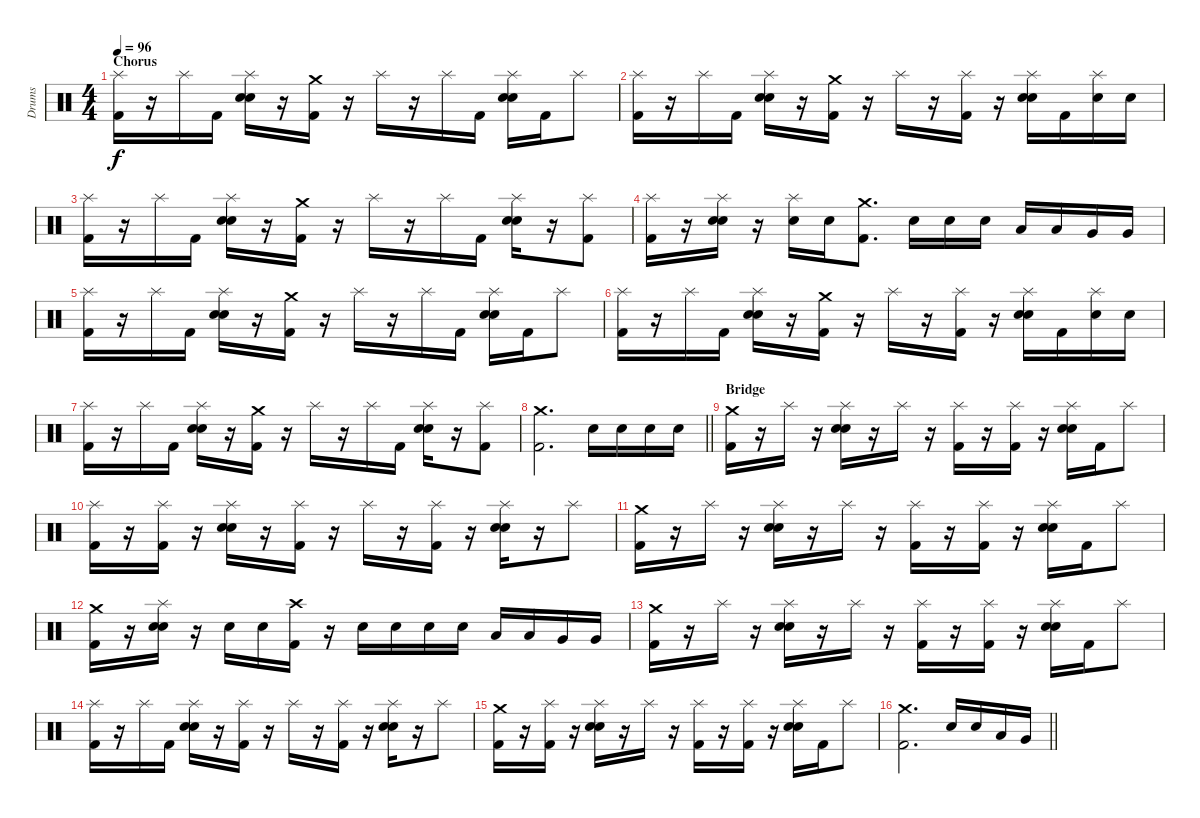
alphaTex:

\track ("Drums" "Drums") {instrument percussion}
\staff {score}
\articulation defaults
\ts (4 4)
\section ("" "Chorus")
\tempo 96
\clef neutral
\ks c
("Splash (hit)" "Kick (hit) 2").16{dy f} r.16 "Splash (hit)".16 "Kick (hit) 2".16 ("Splash (hit)" "Electric Snare (hit)" "Snare (hit) 2").16 r.16 ("Crash medium (hit)" "Kick (hit) 2").16 r.16 "Splash (hit)".16 r.16 "Splash (hit)".16 "Kick (hit) 2".16 ("Splash (hit)" "Electric Snare (hit)" "Snare (hit) 2").16 "Kick (hit) 2".16 "Splash (hit)".8 |
("Splash (hit)" "Kick (hit) 2").16 r.16 "Splash (hit)".16 "Kick (hit) 2".16 ("Splash (hit)" "Electric Snare (hit)" "Snare (hit) 2").16 r.16 ("Crash medium (hit)" "Kick (hit) 2").16 r.16 "Splash (hit)".16 r.16 ("Splash (hit)" "Kick (hit) 2").16 r.16 ("Splash (hit)" "Electric Snare (hit)" "Snare (hit) 2").16 "Kick (hit) 2".16 ("Splash (hit)" "Electric Snare (hit)").16 "Electric Snare (hit)".16 |
("Splash (hit)" "Kick (hit) 2").16 r.16 "Splash (hit)".16 "Kick (hit) 2".16 ("Splash (hit)" "Electric Snare (hit)" "Snare (hit) 2").16 r.16 ("Crash medium (hit)" "Kick (hit) 2").16 r.16 "Splash (hit)".16 r.16 "Splash (hit)".16 "Kick (hit) 2".16 ("Splash (hit)" "Electric Snare (hit)" "Snare (hit) 2").16 r.16 ("Splash (hit)" "Kick (hit) 2").8 |
("Splash (hit)" "Kick (hit) 2").16 r.16 ("Splash (hit)" "Electric Snare (hit)" "Snare (hit) 2").16 r.16 ("Splash (hit)" "Electric Snare (hit)").16 "Electric Snare (hit)".16 ("Crash medium (hit)" "Kick (hit) 2").8{d} "Electric Snare (hit)".16 "Electric Snare (hit)".16 "Electric Snare (hit)".16 "Low Tom (hit)".16 "Low Tom (hit)".16 "Very Low Tom (hit)".16 "Very Low Tom (hit)".16 |
("Splash (hit)" "Kick (hit) 2").16 r.16 "Splash (hit)".16 "Kick (hit) 2".16 ("Splash (hit)" "Electric Snare (hit)" "Snare (hit) 2").16 r.16 ("Crash medium (hit)" "Kick (hit) 2").16 r.16 "Splash (hit)".16 r.16 "Splash (hit)".16 "Kick (hit) 2".16 ("Splash (hit)" "Electric Snare (hit)" "Snare (hit) 2").16 "Kick (hit) 2".16 "Splash (hit)".8 |
("Splash (hit)" "Kick (hit) 2").16 r.16 "Splash (hit)".16 "Kick (hit) 2".16 ("Splash (hit)" "Electric Snare (hit)" "Snare (hit) 2").16 r.16 ("Crash medium (hit)" "Kick (hit) 2").16 r.16 "Splash (hit)".16 r.16 ("Splash (hit)" "Kick (hit) 2").16 r.16 ("Splash (hit)" "Electric Snare (hit)" "Snare (hit) 2").16 "Kick (hit) 2".16 ("Splash (hit)" "Electric Snare (hit)").16 "Electric Snare (hit)".16 |
("Splash (hit)" "Kick (hit) 2").16 r.16 "Splash (hit)".16 "Kick (hit) 2".16 ("Splash (hit)" "Electric Snare (hit)" "Snare (hit) 2").16 r.16 ("Crash medium (hit)" "Kick (hit) 2").16 r.16 "Splash (hit)".16 r.16 "Splash (hit)".16 "Kick (hit) 2".16 ("Splash (hit)" "Electric Snare (hit)" "Snare (hit) 2").16 r.16 ("Splash (hit)" "Kick (hit) 2").8 |
\barLineRight lightlight
("Crash medium (hit)" "Kick (hit) 2").2{d} "Electric Snare (hit)".16 "Electric Snare (hit)".16 "Electric Snare (hit)".16 "Electric Snare (hit)".16 |
\section ("" "Bridge")
("Crash medium (hit)" "Kick (hit) 2").16 r.16 "Splash (hit)".16 r.16 ("Splash (hit)" "Electric Snare (hit)" "Snare (hit) 2").16 r.16 "Splash (hit)".16 r.16 ("Splash (hit)" "Kick (hit) 2").16 r.16 ("Splash (hit)" "Kick (hit) 2").16 r.16 ("Splash (hit)" "Electric Snare (hit)" "Snare (hit) 2").16 "Kick (hit) 2".16 "Splash (hit)".8 |
("Splash (hit)" "Kick (hit) 2").16 r.16 ("Splash (hit)" "Kick (hit) 2").16 r.16 ("Splash (hit)" "Electric Snare (hit)" "Snare (hit) 2").16 r.16 ("Splash (hit)" "Kick (hit) 2").16 r.16 "Splash (hit)".16 r.16 ("Splash (hit)" "Kick (hit) 2").16 r.16 ("Splash (hit)" "Electric Snare (hit)" "Snare (hit) 2").16 r.16 "Splash (hit)".8 |
("Crash medium (hit)" "Kick (hit) 2").16 r.16 "Splash (hit)".16 r.16 ("Splash (hit)" "Electric Snare (hit)" "Snare (hit) 2").16 r.16 "Splash (hit)".16 r.16 ("Splash (hit)" "Kick (hit) 2").16 r.16 ("Splash (hit)" "Kick (hit) 2").16 r.16 ("Splash (hit)" "Electric Snare (hit)" "Snare (hit) 2").16 "Kick (hit) 2".16 "Splash (hit)".8 |
("Crash medium (hit)" "Kick (hit) 2").16 r.16 ("Splash (hit)" "Electric Snare (hit)" "Snare (hit) 2").16 r.16 "Electric Snare (hit)".16 "Electric Snare (hit)".16 ("Crash high (hit)" "Kick (hit) 2").16 r.16 "Electric Snare (hit)".16 "Electric Snare (hit)".16 "Electric Snare (hit)".16 "Electric Snare (hit)".16 "Low Tom (hit)".16 "Low Tom (hit)".16 "Very Low Tom (hit)".16 "Very Low Tom (hit)".16 |
("Crash medium (hit)" "Kick (hit) 2").16 r.16 "Splash (hit)".16 r.16 ("Splash (hit)" "Electric Snare (hit)" "Snare (hit) 2").16 r.16 "Splash (hit)".16 r.16 ("Splash (hit)" "Kick (hit) 2").16 r.16 ("Splash (hit)" "Kick (hit) 2").16 r.16 ("Splash (hit)" "Electric Snare (hit)" "Snare (hit) 2").16 "Kick (hit) 2".16 "Splash (hit)".8 |
("Splash (hit)" "Kick (hit) 2").16 r.16 "Splash (hit)".16 "Kick (hit) 2".16 ("Splash (hit)" "Electric Snare (hit)" "Snare (hit) 2").16 r.16 ("Splash (hit)" "Kick (hit) 2").16 r.16 "Splash (hit)".16 r.16 ("Splash (hit)" "Kick (hit) 2").16 r.16 ("Splash (hit)" "Electric Snare (hit)" "Snare (hit) 2").16 r.16 "Splash (hit)".8 |
("Crash medium (hit)" "Kick (hit) 2").16 r.16 ("Splash (hit)" "Kick (hit) 2").16 r.16 ("Splash (hit)" "Electric Snare (hit)" "Snare (hit) 2").16 r.16 "Splash (hit)".16 r.16 ("Splash (hit)" "Kick (hit) 2").16 r.16 ("Splash (hit)" "Kick (hit) 2").16 r.16 ("Splash (hit)" "Electric Snare (hit)" "Snare (hit) 2").16 "Kick (hit) 2".16 "Splash (hit)".8 |
\barLineRight lightlight
("Crash medium (hit)" "Kick (hit) 2").2{d} "Electric Snare (hit)".16 "Electric Snare (hit)".16 "Low Tom (hit)".16 "Very Low Tom (hit)".16
